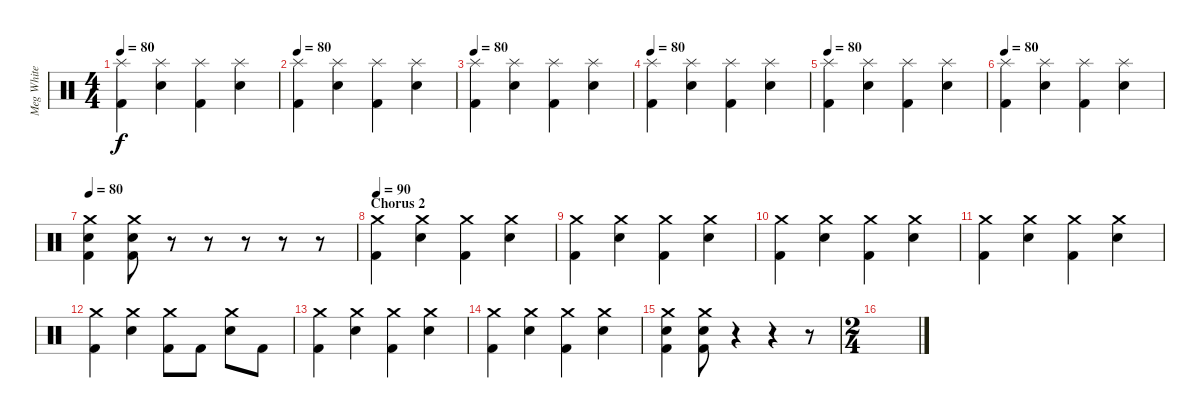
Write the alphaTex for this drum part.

\track ("Meg White - Drums" "Meg White ") {instrument percussion}
\staff {score}
\articulation defaults
\ts (4 4)
\tempo 80
\clef neutral
\ks c
("Splash (hit)" "Kick (hit) 2").4{dy f} ("Splash (hit)" "Snare (hit) 2").4 ("Splash (hit)" "Kick (hit) 2").4 ("Splash (hit)" "Snare (hit) 2").4 |
\tempo 80
("Splash (hit)" "Kick (hit) 2").4 ("Splash (hit)" "Snare (hit) 2").4 ("Splash (hit)" "Kick (hit) 2").4 ("Splash (hit)" "Snare (hit) 2").4 |
\tempo 80
("Splash (hit)" "Kick (hit) 2").4 ("Splash (hit)" "Snare (hit) 2").4 ("Splash (hit)" "Kick (hit) 2").4 ("Splash (hit)" "Snare (hit) 2").4 |
\tempo 80
("Splash (hit)" "Kick (hit) 2").4 ("Splash (hit)" "Snare (hit) 2").4 ("Splash (hit)" "Kick (hit) 2").4 ("Splash (hit)" "Snare (hit) 2").4 |
\tempo 80
("Splash (hit)" "Kick (hit) 2").4 ("Splash (hit)" "Snare (hit) 2").4 ("Splash (hit)" "Kick (hit) 2").4 ("Splash (hit)" "Snare (hit) 2").4 |
\tempo 80
("Splash (hit)" "Kick (hit) 2").4 ("Splash (hit)" "Snare (hit) 2").4 ("Splash (hit)" "Kick (hit) 2").4 ("Splash (hit)" "Snare (hit) 2").4 |
\tempo 80
("Crash medium (hit)" "Snare (hit) 2" "Kick (hit) 2").4 ("Crash medium (hit)" "Snare (hit) 2" "Kick (hit) 2").8 r.8 r.8 r.8 r.8 r.8 |
\section ("" "Chorus 2")
\tempo 90
("Crash medium (hit)" "Kick (hit) 2").4 ("Crash medium (hit)" "Snare (hit) 2").4 ("Crash medium (hit)" "Kick (hit) 2").4 ("Crash medium (hit)" "Snare (hit) 2").4 |
("Crash medium (hit)" "Kick (hit) 2").4 ("Crash medium (hit)" "Snare (hit) 2").4 ("Crash medium (hit)" "Kick (hit) 2").4 ("Crash medium (hit)" "Snare (hit) 2").4 |
("Crash medium (hit)" "Kick (hit) 2").4 ("Crash medium (hit)" "Snare (hit) 2").4 ("Crash medium (hit)" "Kick (hit) 2").4 ("Crash medium (hit)" "Snare (hit) 2").4 |
("Crash medium (hit)" "Kick (hit) 2").4 ("Crash medium (hit)" "Snare (hit) 2").4 ("Crash medium (hit)" "Kick (hit) 2").4 ("Crash medium (hit)" "Snare (hit) 2").4 |
("Crash medium (hit)" "Kick (hit) 2").4 ("Crash medium (hit)" "Snare (hit) 2").4 ("Crash medium (hit)" "Kick (hit) 2").8 "Kick (hit) 2".8 ("Crash medium (hit)" "Snare (hit) 2").8 "Kick (hit) 2".8 |
("Crash medium (hit)" "Kick (hit) 2").4 ("Crash medium (hit)" "Snare (hit) 2").4 ("Crash medium (hit)" "Kick (hit) 2").4 ("Crash medium (hit)" "Snare (hit) 2").4 |
("Crash medium (hit)" "Kick (hit) 2").4 ("Crash medium (hit)" "Snare (hit) 2").4 ("Crash medium (hit)" "Kick (hit) 2").4 ("Crash medium (hit)" "Snare (hit) 2").4 |
("Crash medium (hit)" "Snare (hit) 2" "Kick (hit) 2").4 ("Crash medium (hit)" "Snare (hit) 2" "Kick (hit) 2").8 r.4 r.4 r.8 |
\ts (2 4)
